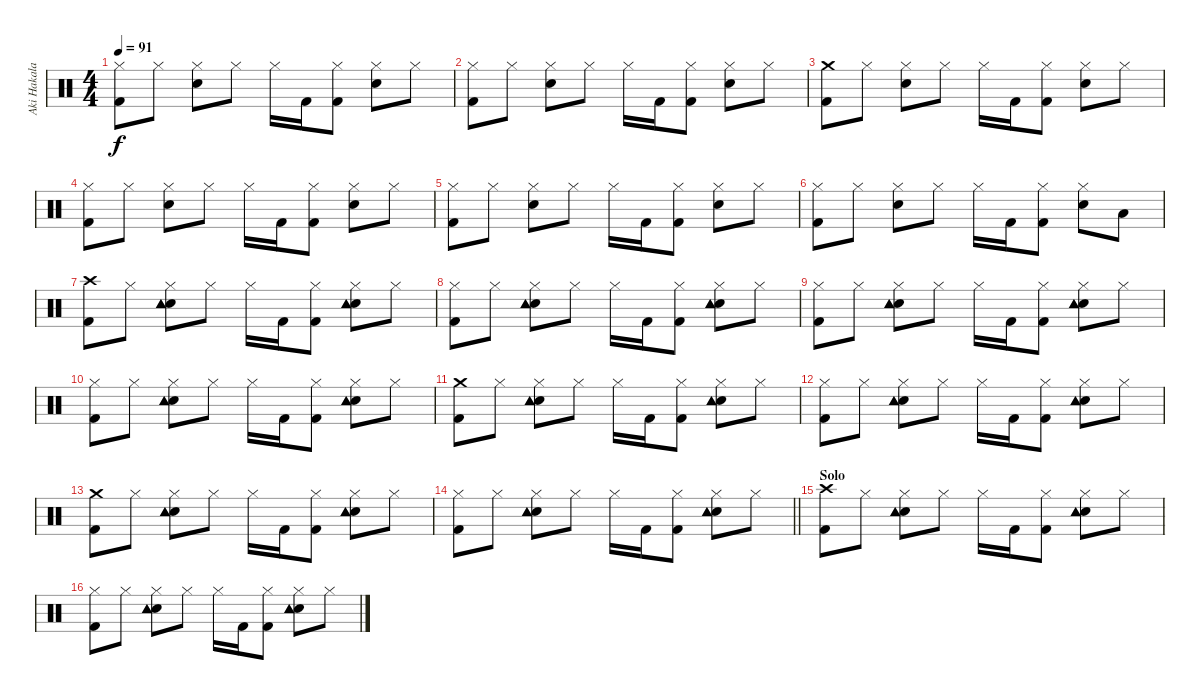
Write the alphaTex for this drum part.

\track ("Aki Hakala" "Aki Hakala") {instrument percussion}
\staff {score}
\articulation defaults
\ts (4 4)
\tempo 91
\clef neutral
\ks c
("Hi-Hat (closed)" "Kick (hit) 2").8{dy f} "Hi-Hat (closed)".8 ("Hi-Hat (closed)" "Electric Snare (hit)").8 "Hi-Hat (closed)".8 "Hi-Hat (closed)".16 "Kick (hit) 2".16 ("Hi-Hat (closed)" "Kick (hit) 2").8 ("Hi-Hat (closed)" "Electric Snare (hit)").8 "Hi-Hat (closed)".8 |
("Hi-Hat (closed)" "Kick (hit) 2").8 "Hi-Hat (closed)".8 ("Hi-Hat (closed)" "Electric Snare (hit)").8 "Hi-Hat (closed)".8 "Hi-Hat (closed)".16 "Kick (hit) 2".16 ("Hi-Hat (closed)" "Kick (hit) 2").8 ("Hi-Hat (closed)" "Electric Snare (hit)").8 "Hi-Hat (closed)".8 |
("Crash medium (hit)" "Kick (hit) 2").8 "Hi-Hat (closed)".8 ("Hi-Hat (closed)" "Electric Snare (hit)").8 "Hi-Hat (closed)".8 "Hi-Hat (closed)".16 "Kick (hit) 2".16 ("Hi-Hat (closed)" "Kick (hit) 2").8 ("Hi-Hat (closed)" "Electric Snare (hit)").8 "Hi-Hat (closed)".8 |
("Hi-Hat (closed)" "Kick (hit) 2").8 "Hi-Hat (closed)".8 ("Hi-Hat (closed)" "Electric Snare (hit)").8 "Hi-Hat (closed)".8 "Hi-Hat (closed)".16 "Kick (hit) 2".16 ("Hi-Hat (closed)" "Kick (hit) 2").8 ("Hi-Hat (closed)" "Electric Snare (hit)").8 "Hi-Hat (closed)".8 |
("Hi-Hat (closed)" "Kick (hit) 2").8 "Hi-Hat (closed)".8 ("Hi-Hat (closed)" "Electric Snare (hit)").8 "Hi-Hat (closed)".8 "Hi-Hat (closed)".16 "Kick (hit) 2".16 ("Hi-Hat (closed)" "Kick (hit) 2").8 ("Hi-Hat (closed)" "Electric Snare (hit)").8 "Hi-Hat (closed)".8 |
("Hi-Hat (closed)" "Kick (hit) 2").8 "Hi-Hat (closed)".8 ("Hi-Hat (closed)" "Electric Snare (hit)").8 "Hi-Hat (closed)".8 "Hi-Hat (closed)".16 "Kick (hit) 2".16 ("Hi-Hat (closed)" "Kick (hit) 2").8 ("Hi-Hat (closed)" "Electric Snare (hit)").8 "Low Tom (hit)".8 |
("Crash high (hit)" "Kick (hit) 2").8 "Hi-Hat (closed)".8 ("Hi-Hat (closed)" "Electric Snare (hit)" "Tambourine (hit)" "Tambourine (hit)").8 "Hi-Hat (closed)".8 "Hi-Hat (closed)".16 "Kick (hit) 2".16 ("Hi-Hat (closed)" "Kick (hit) 2").8 ("Hi-Hat (closed)" "Electric Snare (hit)" "Tambourine (hit)" "Tambourine (hit)").8 "Hi-Hat (closed)".8 |
("Hi-Hat (closed)" "Kick (hit) 2").8 "Hi-Hat (closed)".8 ("Hi-Hat (closed)" "Electric Snare (hit)" "Tambourine (hit)" "Tambourine (hit)").8 "Hi-Hat (closed)".8 "Hi-Hat (closed)".16 "Kick (hit) 2".16 ("Hi-Hat (closed)" "Kick (hit) 2").8 ("Hi-Hat (closed)" "Electric Snare (hit)" "Tambourine (hit)" "Tambourine (hit)").8 "Hi-Hat (closed)".8 |
("Hi-Hat (closed)" "Kick (hit) 2").8 "Hi-Hat (closed)".8 ("Hi-Hat (closed)" "Electric Snare (hit)" "Tambourine (hit)" "Tambourine (hit)").8 "Hi-Hat (closed)".8 "Hi-Hat (closed)".16 "Kick (hit) 2".16 ("Hi-Hat (closed)" "Kick (hit) 2").8 ("Hi-Hat (closed)" "Electric Snare (hit)" "Tambourine (hit)" "Tambourine (hit)").8 "Hi-Hat (closed)".8 |
("Hi-Hat (closed)" "Kick (hit) 2").8 "Hi-Hat (closed)".8 ("Hi-Hat (closed)" "Electric Snare (hit)" "Tambourine (hit)" "Tambourine (hit)").8 "Hi-Hat (closed)".8 "Hi-Hat (closed)".16 "Kick (hit) 2".16 ("Hi-Hat (closed)" "Kick (hit) 2").8 ("Hi-Hat (closed)" "Electric Snare (hit)" "Tambourine (hit)" "Tambourine (hit)").8 "Hi-Hat (closed)".8 |
("Crash medium (hit)" "Kick (hit) 2").8 "Hi-Hat (closed)".8 ("Hi-Hat (closed)" "Electric Snare (hit)" "Tambourine (hit)" "Tambourine (hit)").8 "Hi-Hat (closed)".8 "Hi-Hat (closed)".16 "Kick (hit) 2".16 ("Hi-Hat (closed)" "Kick (hit) 2").8 ("Hi-Hat (closed)" "Electric Snare (hit)" "Tambourine (hit)" "Tambourine (hit)").8 "Hi-Hat (closed)".8 |
("Hi-Hat (closed)" "Kick (hit) 2").8 "Hi-Hat (closed)".8 ("Hi-Hat (closed)" "Electric Snare (hit)" "Tambourine (hit)" "Tambourine (hit)").8 "Hi-Hat (closed)".8 "Hi-Hat (closed)".16 "Kick (hit) 2".16 ("Hi-Hat (closed)" "Kick (hit) 2").8 ("Hi-Hat (closed)" "Electric Snare (hit)" "Tambourine (hit)" "Tambourine (hit)").8 "Hi-Hat (closed)".8 |
("Crash medium (hit)" "Kick (hit) 2").8 "Hi-Hat (closed)".8 ("Hi-Hat (closed)" "Electric Snare (hit)" "Tambourine (hit)" "Tambourine (hit)").8 "Hi-Hat (closed)".8 "Hi-Hat (closed)".16 "Kick (hit) 2".16 ("Hi-Hat (closed)" "Kick (hit) 2").8 ("Hi-Hat (closed)" "Electric Snare (hit)" "Tambourine (hit)" "Tambourine (hit)").8 "Hi-Hat (closed)".8 |
\barLineRight lightlight
("Hi-Hat (closed)" "Kick (hit) 2").8 "Hi-Hat (closed)".8 ("Hi-Hat (closed)" "Electric Snare (hit)" "Tambourine (hit)" "Tambourine (hit)").8 "Hi-Hat (closed)".8 "Hi-Hat (closed)".16 "Kick (hit) 2".16 ("Hi-Hat (closed)" "Kick (hit) 2").8 ("Hi-Hat (closed)" "Electric Snare (hit)" "Tambourine (hit)" "Tambourine (hit)").8 "Hi-Hat (closed)".8 |
\section ("" "Solo")
("Crash high (hit)" "Kick (hit) 2").8 "Hi-Hat (closed)".8 ("Hi-Hat (closed)" "Electric Snare (hit)" "Tambourine (hit)" "Tambourine (hit)").8 "Hi-Hat (closed)".8 "Hi-Hat (closed)".16 "Kick (hit) 2".16 ("Hi-Hat (closed)" "Kick (hit) 2").8 ("Hi-Hat (closed)" "Electric Snare (hit)" "Tambourine (hit)" "Tambourine (hit)").8 "Hi-Hat (closed)".8 |
("Hi-Hat (closed)" "Kick (hit) 2").8 "Hi-Hat (closed)".8 ("Hi-Hat (closed)" "Electric Snare (hit)" "Tambourine (hit)" "Tambourine (hit)").8 "Hi-Hat (closed)".8 "Hi-Hat (closed)".16 "Kick (hit) 2".16 ("Hi-Hat (closed)" "Kick (hit) 2").8 ("Hi-Hat (closed)" "Electric Snare (hit)" "Tambourine (hit)" "Tambourine (hit)").8 "Hi-Hat (closed)".8
